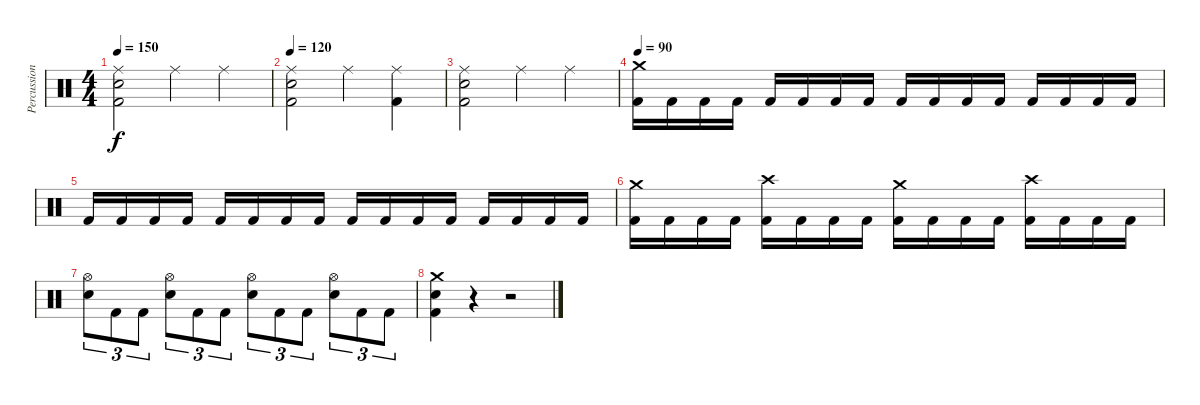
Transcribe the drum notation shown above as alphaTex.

\track ("Percussion" "Percussion") {instrument percussion}
\staff {score}
\articulation defaults
\ts (4 4)
\tempo 150
\clef neutral
\ks c
("Ride (middle)" "Snare (hit) 2" "Kick (hit) 2").2{dy f} "Ride (middle)".4 "Ride (middle)".4 |
\tempo 150
\tempo 120
("Ride (middle)" "Snare (hit) 2" "Kick (hit) 2").2 "Ride (middle)".4 ("Ride (middle)" "Kick (hit) 2").4 |
("Ride (middle)" "Snare (hit) 2" "Kick (hit) 2").2 "Ride (middle)".4 "Ride (middle)".4 |
\tempo 90
("Crash medium (hit)" "Kick (hit) 2").16 "Kick (hit) 2".16 "Kick (hit) 2".16 "Kick (hit) 2".16 "Kick (hit) 2".16 "Kick (hit) 2".16 "Kick (hit) 2".16 "Kick (hit) 2".16 "Kick (hit) 2".16 "Kick (hit) 2".16 "Kick (hit) 2".16 "Kick (hit) 2".16 "Kick (hit) 2".16 "Kick (hit) 2".16 "Kick (hit) 2".16 "Kick (hit) 2".16 |
"Kick (hit) 2".16 "Kick (hit) 2".16 "Kick (hit) 2".16 "Kick (hit) 2".16 "Kick (hit) 2".16 "Kick (hit) 2".16 "Kick (hit) 2".16 "Kick (hit) 2".16 "Kick (hit) 2".16 "Kick (hit) 2".16 "Kick (hit) 2".16 "Kick (hit) 2".16 "Kick (hit) 2".16 "Kick (hit) 2".16 "Kick (hit) 2".16 "Kick (hit) 2".16 |
("Crash medium (hit)" "Kick (hit) 2").16 "Kick (hit) 2".16 "Kick (hit) 2".16 "Kick (hit) 2".16 ("Crash high (hit)" "Kick (hit) 2").16 "Kick (hit) 2".16 "Kick (hit) 2".16 "Kick (hit) 2".16 ("Crash medium (hit)" "Kick (hit) 2").16 "Kick (hit) 2".16 "Kick (hit) 2".16 "Kick (hit) 2".16 ("Crash high (hit)" "Kick (hit) 2").16 "Kick (hit) 2".16 "Kick (hit) 2".16 "Kick (hit) 2".16 |
("Hi-Hat (open)" "Snare (hit) 2").8{tu (3 2)} "Kick (hit) 2".8{tu (3 2)} "Kick (hit) 2".8{tu (3 2)} ("Hi-Hat (open)" "Snare (hit) 2").8{tu (3 2)} "Kick (hit) 2".8{tu (3 2)} "Kick (hit) 2".8{tu (3 2)} ("Hi-Hat (open)" "Snare (hit) 2").8{tu (3 2)} "Kick (hit) 2".8{tu (3 2)} "Kick (hit) 2".8{tu (3 2)} ("Hi-Hat (open)" "Snare (hit) 2").8{tu (3 2)} "Kick (hit) 2".8{tu (3 2)} "Kick (hit) 2".8{tu (3 2)} |
("Crash medium (hit)" "Snare (hit) 2" "Kick (hit) 2").4 r.4 r.2
